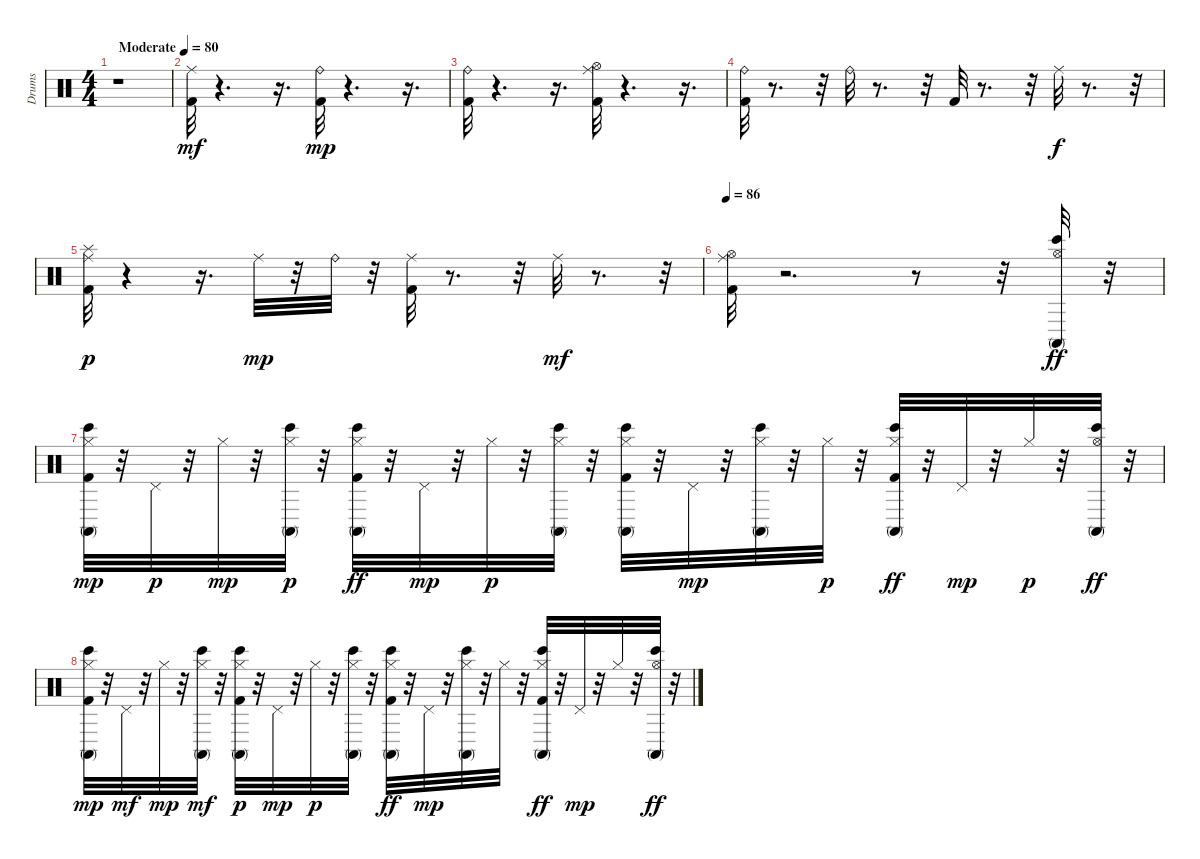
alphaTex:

\track ("Drums" "Drums") {instrument percussion}
\staff {score}
\articulation defaults
\ts (4 4)
\tempo (80 "Moderate")
\clef neutral
\ks c
r.1{dy mf} |
("Kick (hit) 2" "Ride (middle)").32 r.4{d} r.16{d} ("Kick (hit) 2" "Ride (bell)").32{dy mp} r.4{d} r.16{d} |
("Kick (hit) 2" "Ride (bell)").32 r.4{d} r.16{d} ("Kick (hit) 2" "Ride (middle)" "Hi-Hat (open)").32 r.4{d} r.16{d} |
("Kick (hit) 2" "Ride (bell)").32 r.8{d} r.32 "Ride (bell)".32 r.8{d} r.32 "Kick (hit) 2".32 r.8{d} r.32 "Ride (middle)".32{dy f} r.8{d} r.32 |
("Kick (hit) 2" "Ride (middle)" "Splash (hit)").32{dy p} r.4 r.16{d} "Ride (middle)".32{dy mp} r.32 "Ride (bell)".32 r.32 ("Kick (hit) 2" "Ride (middle)").32 r.8{d} r.32 "Ride (middle)".32{dy mf} r.8{d} r.32 |
\tempo 86
("Ride (middle)" "Hi-Hat (open)" "Kick (hit) 2").32 r.2{d} r.8 r.32 ("Bongo High (hit)" "Conga high (mute)" "Hi-Hat (open)").32{dy ff} r.32 |
("Bongo High (hit)" "Conga high (mute)" "Kick (hit) 2" "Hi-Hat (closed)").32{dy mp} r.32 "Pedal Hi-Hat (hit)".32{dy p} r.32 "Hi-Hat (closed)".32{dy mp} r.32 ("Bongo High (hit)" "Conga high (mute)" "Hi-Hat (closed)").32{dy p} r.32 ("Bongo High (hit)" "Conga high (mute)" "Hi-Hat (closed)" "Kick (hit) 2").32{dy ff} r.32 "Pedal Hi-Hat (hit)".32{dy mp} r.32 "Hi-Hat (closed)".32{dy p} r.32 ("Conga high (mute)" "Bongo High (hit)" "Hi-Hat (closed)").32 r.32 ("Bongo High (hit)" "Kick (hit) 2" "Hi-Hat (closed)" "Conga high (mute)").32 r.32 "Pedal Hi-Hat (hit)".32{dy mp} r.32 ("Hi-Hat (closed)" "Conga high (mute)" "Bongo High (hit)").32 r.32 "Hi-Hat (closed)".32{dy p} r.32 ("Conga high (mute)" "Bongo High (hit)" "Hi-Hat (closed)" "Kick (hit) 2").32{dy ff} r.32 "Pedal Hi-Hat (hit)".32{dy mp} r.32 "Hi-Hat (closed)".32{dy p} r.32 ("Conga high (mute)" "Bongo High (hit)" "Hi-Hat (open)").32{dy ff} r.32 |
("Bongo High (hit)" "Kick (hit) 2" "Hi-Hat (closed)" "Conga high (mute)").32{dy mp} r.32 "Pedal Hi-Hat (hit)".32{dy mf} r.32 "Hi-Hat (closed)".32{dy mp} r.32 ("Hi-Hat (closed)" "Conga high (mute)" "Bongo High (hit)").32{dy mf} r.32 ("Hi-Hat (closed)" "Kick (hit) 2" "Conga high (mute)" "Bongo High (hit)").32{dy p} r.32 "Pedal Hi-Hat (hit)".32{dy mp} r.32 "Hi-Hat (closed)".32{dy p} r.32 ("Bongo High (hit)" "Conga high (mute)" "Hi-Hat (closed)").32 r.32 ("Conga high (mute)" "Bongo High (hit)" "Kick (hit) 2" "Hi-Hat (closed)").32{dy ff} r.32 "Pedal Hi-Hat (hit)".32{dy mp} r.32 ("Bongo High (hit)" "Conga high (mute)" "Hi-Hat (closed)").32 r.32 "Hi-Hat (closed)".32 r.32 ("Conga high (mute)" "Bongo High (hit)" "Hi-Hat (closed)" "Kick (hit) 2").32{dy ff} r.32 "Pedal Hi-Hat (hit)".32{dy mp} r.32 "Hi-Hat (closed)".32 r.32 ("Bongo High (hit)" "Conga high (mute)" "Hi-Hat (open)").32{dy ff} r.32
